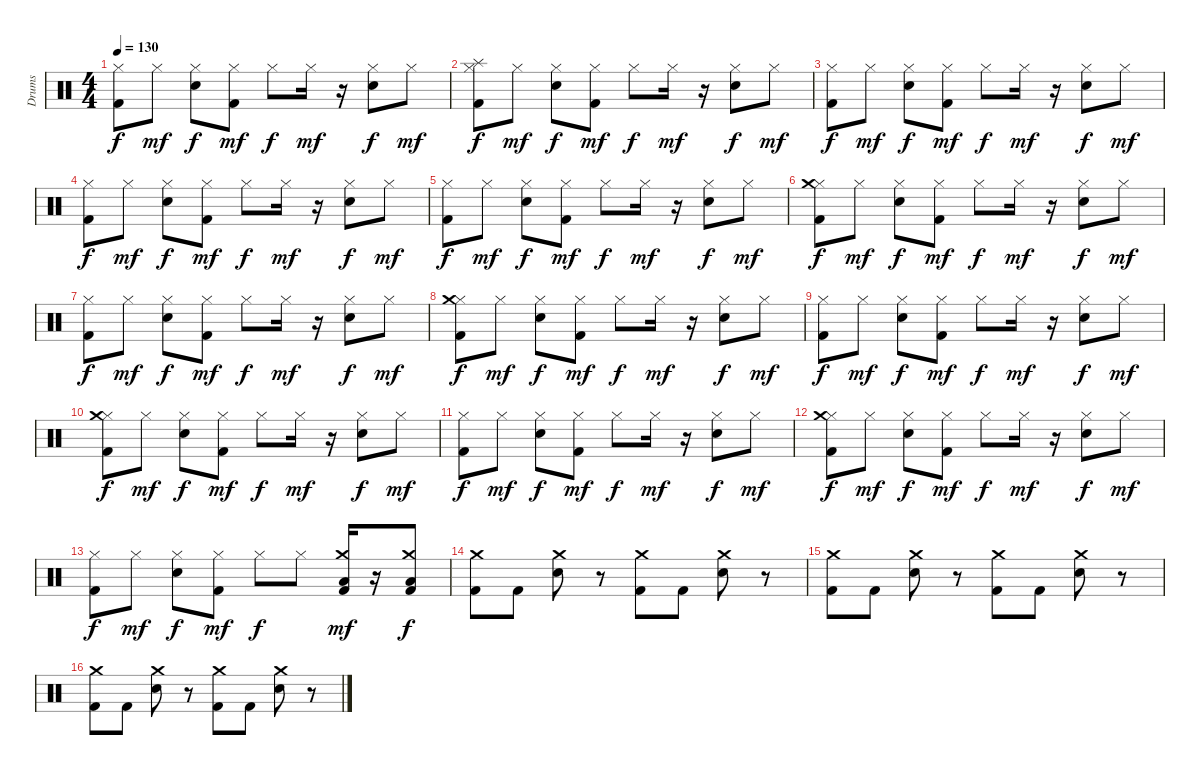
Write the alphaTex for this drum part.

\track ("Drums" "Drums") {instrument percussion}
\staff {score}
\articulation defaults
\ts (4 4)
\tempo 130
\clef neutral
\ks c
("Hi-Hat (closed)" "Kick (hit) 2").8{dy f} "Hi-Hat (closed)".8{dy mf} ("Hi-Hat (closed)" "Snare (hit) 2").8{dy f} ("Hi-Hat (closed)" "Kick (hit) 2").8{dy mf} "Hi-Hat (closed)".8{dy f} "Hi-Hat (closed)".16{dy mf} r.16 ("Hi-Hat (closed)" "Snare (hit) 2").8{dy f} "Hi-Hat (closed)".8{dy mf} |
("Hi-Hat (closed)" "Splash (hit)" "Kick (hit) 2").8{dy f} "Hi-Hat (closed)".8{dy mf} ("Hi-Hat (closed)" "Snare (hit) 2").8{dy f} ("Hi-Hat (closed)" "Kick (hit) 2").8{dy mf} "Hi-Hat (closed)".8{dy f} "Hi-Hat (closed)".16{dy mf} r.16 ("Hi-Hat (closed)" "Snare (hit) 2").8{dy f} "Hi-Hat (closed)".8{dy mf} |
("Hi-Hat (closed)" "Kick (hit) 2").8{dy f} "Hi-Hat (closed)".8{dy mf} ("Hi-Hat (closed)" "Snare (hit) 2").8{dy f} ("Hi-Hat (closed)" "Kick (hit) 2").8{dy mf} "Hi-Hat (closed)".8{dy f} "Hi-Hat (closed)".16{dy mf} r.16 ("Hi-Hat (closed)" "Snare (hit) 2").8{dy f} "Hi-Hat (closed)".8{dy mf} |
("Hi-Hat (closed)" "Kick (hit) 2").8{dy f} "Hi-Hat (closed)".8{dy mf} ("Hi-Hat (closed)" "Snare (hit) 2").8{dy f} ("Hi-Hat (closed)" "Kick (hit) 2").8{dy mf} "Hi-Hat (closed)".8{dy f} "Hi-Hat (closed)".16{dy mf} r.16 ("Hi-Hat (closed)" "Snare (hit) 2").8{dy f} "Hi-Hat (closed)".8{dy mf} |
("Hi-Hat (closed)" "Kick (hit) 2").8{dy f} "Hi-Hat (closed)".8{dy mf} ("Hi-Hat (closed)" "Snare (hit) 2").8{dy f} ("Hi-Hat (closed)" "Kick (hit) 2").8{dy mf} "Hi-Hat (closed)".8{dy f} "Hi-Hat (closed)".16{dy mf} r.16 ("Hi-Hat (closed)" "Snare (hit) 2").8{dy f} "Hi-Hat (closed)".8{dy mf} |
("Hi-Hat (closed)" "Crash medium (hit)" "Kick (hit) 2").8{dy f} "Hi-Hat (closed)".8{dy mf} ("Hi-Hat (closed)" "Snare (hit) 2").8{dy f} ("Hi-Hat (closed)" "Kick (hit) 2").8{dy mf} "Hi-Hat (closed)".8{dy f} "Hi-Hat (closed)".16{dy mf} r.16 ("Hi-Hat (closed)" "Snare (hit) 2").8{dy f} "Hi-Hat (closed)".8{dy mf} |
("Hi-Hat (closed)" "Kick (hit) 2").8{dy f} "Hi-Hat (closed)".8{dy mf} ("Hi-Hat (closed)" "Snare (hit) 2").8{dy f} ("Hi-Hat (closed)" "Kick (hit) 2").8{dy mf} "Hi-Hat (closed)".8{dy f} "Hi-Hat (closed)".16{dy mf} r.16 ("Hi-Hat (closed)" "Snare (hit) 2").8{dy f} "Hi-Hat (closed)".8{dy mf} |
("Hi-Hat (closed)" "Crash medium (hit)" "Kick (hit) 2").8{dy f} "Hi-Hat (closed)".8{dy mf} ("Hi-Hat (closed)" "Snare (hit) 2").8{dy f} ("Hi-Hat (closed)" "Kick (hit) 2").8{dy mf} "Hi-Hat (closed)".8{dy f} "Hi-Hat (closed)".16{dy mf} r.16 ("Hi-Hat (closed)" "Snare (hit) 2").8{dy f} "Hi-Hat (closed)".8{dy mf} |
("Hi-Hat (closed)" "Kick (hit) 2").8{dy f} "Hi-Hat (closed)".8{dy mf} ("Hi-Hat (closed)" "Snare (hit) 2").8{dy f} ("Hi-Hat (closed)" "Kick (hit) 2").8{dy mf} "Hi-Hat (closed)".8{dy f} "Hi-Hat (closed)".16{dy mf} r.16 ("Hi-Hat (closed)" "Snare (hit) 2").8{dy f} "Hi-Hat (closed)".8{dy mf} |
("Hi-Hat (closed)" "Crash medium (hit)" "Kick (hit) 2").8{dy f} "Hi-Hat (closed)".8{dy mf} ("Hi-Hat (closed)" "Snare (hit) 2").8{dy f} ("Hi-Hat (closed)" "Kick (hit) 2").8{dy mf} "Hi-Hat (closed)".8{dy f} "Hi-Hat (closed)".16{dy mf} r.16 ("Hi-Hat (closed)" "Snare (hit) 2").8{dy f} "Hi-Hat (closed)".8{dy mf} |
("Hi-Hat (closed)" "Kick (hit) 2").8{dy f} "Hi-Hat (closed)".8{dy mf} ("Hi-Hat (closed)" "Snare (hit) 2").8{dy f} ("Hi-Hat (closed)" "Kick (hit) 2").8{dy mf} "Hi-Hat (closed)".8{dy f} "Hi-Hat (closed)".16{dy mf} r.16 ("Hi-Hat (closed)" "Snare (hit) 2").8{dy f} "Hi-Hat (closed)".8{dy mf} |
("Hi-Hat (closed)" "Crash medium (hit)" "Kick (hit) 2").8{dy f} "Hi-Hat (closed)".8{dy mf} ("Hi-Hat (closed)" "Snare (hit) 2").8{dy f} ("Hi-Hat (closed)" "Kick (hit) 2").8{dy mf} "Hi-Hat (closed)".8{dy f} "Hi-Hat (closed)".16{dy mf} r.16 ("Hi-Hat (closed)" "Snare (hit) 2").8{dy f} "Hi-Hat (closed)".8{dy mf} |
("Hi-Hat (closed)" "Kick (hit) 2").8{dy f} "Hi-Hat (closed)".8{dy mf} ("Hi-Hat (closed)" "Snare (hit) 2").8{dy f} ("Hi-Hat (closed)" "Kick (hit) 2").8{dy mf} "Hi-Hat (closed)".8{dy f} "Hi-Hat (closed)".8 ("Crash medium (hit)" "Low Tom (hit)" "Kick (hit) 2").16{dy mf volume 13} r.16 ("Crash medium (hit)" "Low Tom (hit)" "Kick (hit) 2").8{dy f} |
("Crash medium (hit)" "Kick (hit) 2").8 "Kick (hit) 2".8 ("Crash medium (hit)" "Snare (hit) 2").8 r.8 ("Crash medium (hit)" "Kick (hit) 2").8 "Kick (hit) 2".8 ("Crash medium (hit)" "Snare (hit) 2").8 r.8 |
("Crash medium (hit)" "Kick (hit) 2").8 "Kick (hit) 2".8 ("Crash medium (hit)" "Snare (hit) 2").8 r.8 ("Crash medium (hit)" "Kick (hit) 2").8 "Kick (hit) 2".8 ("Crash medium (hit)" "Snare (hit) 2").8 r.8 |
("Crash medium (hit)" "Kick (hit) 2").8 "Kick (hit) 2".8 ("Crash medium (hit)" "Snare (hit) 2").8 r.8 ("Crash medium (hit)" "Kick (hit) 2").8 "Kick (hit) 2".8 ("Crash medium (hit)" "Snare (hit) 2").8 r.8
